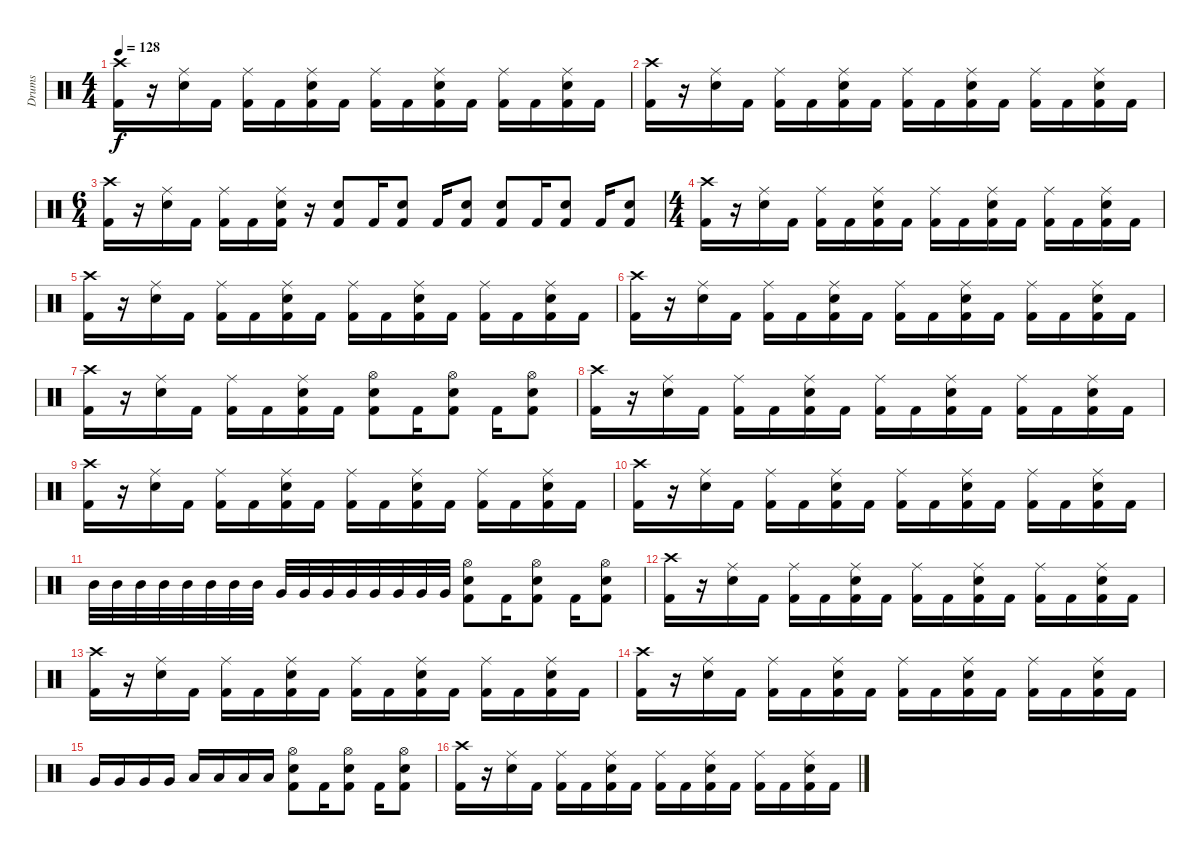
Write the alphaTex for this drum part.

\track ("Drums" "Drums") {instrument percussion}
\staff {score}
\articulation defaults
\ts (4 4)
\tempo 128
\clef neutral
\ks c
("Crash high (hit)" "Kick (hit) 2").16{dy f} r.16 ("Ride (middle)" "Snare (hit) 2").16 "Kick (hit) 2".16 ("Ride (middle)" "Kick (hit) 2").16 "Kick (hit) 2".16 ("Ride (middle)" "Snare (hit) 2" "Kick (hit) 2").16 "Kick (hit) 2".16 ("Ride (middle)" "Kick (hit) 2").16 "Kick (hit) 2".16 ("Ride (middle)" "Snare (hit) 2" "Kick (hit) 2").16 "Kick (hit) 2".16 ("Ride (middle)" "Kick (hit) 2").16 "Kick (hit) 2".16 ("Ride (middle)" "Snare (hit) 2" "Kick (hit) 2").16 "Kick (hit) 2".16 |
("Crash high (hit)" "Kick (hit) 2").16 r.16 ("Ride (middle)" "Snare (hit) 2").16 "Kick (hit) 2".16 ("Ride (middle)" "Kick (hit) 2").16 "Kick (hit) 2".16 ("Ride (middle)" "Snare (hit) 2" "Kick (hit) 2").16 "Kick (hit) 2".16 ("Ride (middle)" "Kick (hit) 2").16 "Kick (hit) 2".16 ("Ride (middle)" "Snare (hit) 2" "Kick (hit) 2").16 "Kick (hit) 2".16 ("Ride (middle)" "Kick (hit) 2").16 "Kick (hit) 2".16 ("Ride (middle)" "Snare (hit) 2" "Kick (hit) 2").16 "Kick (hit) 2".16 |
\ts (6 4)
("Crash high (hit)" "Kick (hit) 2").16 r.16 ("Ride (middle)" "Snare (hit) 2").16 "Kick (hit) 2".16 ("Ride (middle)" "Kick (hit) 2").16 "Kick (hit) 2".16 ("Ride (middle)" "Snare (hit) 2" "Kick (hit) 2").16 r.16 ("Snare (hit) 2" "Kick (hit) 2").8 "Kick (hit) 2".16 ("Snare (hit) 2" "Kick (hit) 2").8 "Kick (hit) 2".16 ("Snare (hit) 2" "Kick (hit) 2").8 ("Snare (hit) 2" "Kick (hit) 2").8 "Kick (hit) 2".16 ("Snare (hit) 2" "Kick (hit) 2").8 "Kick (hit) 2".16 ("Snare (hit) 2" "Kick (hit) 2").8 |
\ts (4 4)
("Crash high (hit)" "Kick (hit) 2").16 r.16 ("Ride (middle)" "Snare (hit) 2").16 "Kick (hit) 2".16 ("Ride (middle)" "Kick (hit) 2").16 "Kick (hit) 2".16 ("Ride (middle)" "Snare (hit) 2" "Kick (hit) 2").16 "Kick (hit) 2".16 ("Ride (middle)" "Kick (hit) 2").16 "Kick (hit) 2".16 ("Ride (middle)" "Snare (hit) 2" "Kick (hit) 2").16 "Kick (hit) 2".16 ("Ride (middle)" "Kick (hit) 2").16 "Kick (hit) 2".16 ("Ride (middle)" "Snare (hit) 2" "Kick (hit) 2").16 "Kick (hit) 2".16 |
("Crash high (hit)" "Kick (hit) 2").16 r.16 ("Ride (middle)" "Snare (hit) 2").16 "Kick (hit) 2".16 ("Ride (middle)" "Kick (hit) 2").16 "Kick (hit) 2".16 ("Ride (middle)" "Snare (hit) 2" "Kick (hit) 2").16 "Kick (hit) 2".16 ("Ride (middle)" "Kick (hit) 2").16 "Kick (hit) 2".16 ("Ride (middle)" "Snare (hit) 2" "Kick (hit) 2").16 "Kick (hit) 2".16 ("Ride (middle)" "Kick (hit) 2").16 "Kick (hit) 2".16 ("Ride (middle)" "Snare (hit) 2" "Kick (hit) 2").16 "Kick (hit) 2".16 |
("Crash high (hit)" "Kick (hit) 2").16 r.16 ("Ride (middle)" "Snare (hit) 2").16 "Kick (hit) 2".16 ("Ride (middle)" "Kick (hit) 2").16 "Kick (hit) 2".16 ("Ride (middle)" "Snare (hit) 2" "Kick (hit) 2").16 "Kick (hit) 2".16 ("Ride (middle)" "Kick (hit) 2").16 "Kick (hit) 2".16 ("Ride (middle)" "Snare (hit) 2" "Kick (hit) 2").16 "Kick (hit) 2".16 ("Ride (middle)" "Kick (hit) 2").16 "Kick (hit) 2".16 ("Ride (middle)" "Snare (hit) 2" "Kick (hit) 2").16 "Kick (hit) 2".16 |
("Crash high (hit)" "Kick (hit) 2").16 r.16 ("Ride (middle)" "Snare (hit) 2").16 "Kick (hit) 2".16 ("Ride (middle)" "Kick (hit) 2").16 "Kick (hit) 2".16 ("Ride (middle)" "Snare (hit) 2" "Kick (hit) 2").16 "Kick (hit) 2".16 ("Hi-Hat (open)" "Snare (hit) 2" "Kick (hit) 2").8 "Kick (hit) 2".16 ("Hi-Hat (open)" "Snare (hit) 2" "Kick (hit) 2").8 "Kick (hit) 2".16 ("Hi-Hat (open)" "Snare (hit) 2" "Kick (hit) 2").8 |
("Crash high (hit)" "Kick (hit) 2").16 r.16 ("Ride (middle)" "Snare (hit) 2").16 "Kick (hit) 2".16 ("Ride (middle)" "Kick (hit) 2").16 "Kick (hit) 2".16 ("Ride (middle)" "Snare (hit) 2" "Kick (hit) 2").16 "Kick (hit) 2".16 ("Ride (middle)" "Kick (hit) 2").16 "Kick (hit) 2".16 ("Ride (middle)" "Snare (hit) 2" "Kick (hit) 2").16 "Kick (hit) 2".16 ("Ride (middle)" "Kick (hit) 2").16 "Kick (hit) 2".16 ("Ride (middle)" "Snare (hit) 2" "Kick (hit) 2").16 "Kick (hit) 2".16 |
("Crash high (hit)" "Kick (hit) 2").16 r.16 ("Ride (middle)" "Snare (hit) 2").16 "Kick (hit) 2".16 ("Ride (middle)" "Kick (hit) 2").16 "Kick (hit) 2".16 ("Ride (middle)" "Snare (hit) 2" "Kick (hit) 2").16 "Kick (hit) 2".16 ("Ride (middle)" "Kick (hit) 2").16 "Kick (hit) 2".16 ("Ride (middle)" "Snare (hit) 2" "Kick (hit) 2").16 "Kick (hit) 2".16 ("Ride (middle)" "Kick (hit) 2").16 "Kick (hit) 2".16 ("Ride (middle)" "Snare (hit) 2" "Kick (hit) 2").16 "Kick (hit) 2".16 |
("Crash high (hit)" "Kick (hit) 2").16 r.16 ("Ride (middle)" "Snare (hit) 2").16 "Kick (hit) 2".16 ("Ride (middle)" "Kick (hit) 2").16 "Kick (hit) 2".16 ("Ride (middle)" "Snare (hit) 2" "Kick (hit) 2").16 "Kick (hit) 2".16 ("Ride (middle)" "Kick (hit) 2").16 "Kick (hit) 2".16 ("Ride (middle)" "Snare (hit) 2" "Kick (hit) 2").16 "Kick (hit) 2".16 ("Ride (middle)" "Kick (hit) 2").16 "Kick (hit) 2".16 ("Ride (middle)" "Snare (hit) 2" "Kick (hit) 2").16 "Kick (hit) 2".16 |
"Mid Tom (hit)".32 "Mid Tom (hit)".32 "Mid Tom (hit)".32 "Mid Tom (hit)".32 "Mid Tom (hit)".32 "Mid Tom (hit)".32 "Mid Tom (hit)".32 "Mid Tom (hit)".32 "Very Low Tom (hit)".32 "Very Low Tom (hit)".32 "Very Low Tom (hit)".32 "Very Low Tom (hit)".32 "Very Low Tom (hit)".32 "Very Low Tom (hit)".32 "Very Low Tom (hit)".32 "Very Low Tom (hit)".32 ("Hi-Hat (open)" "Snare (hit) 2" "Kick (hit) 2").8 "Kick (hit) 2".16 ("Hi-Hat (open)" "Snare (hit) 2" "Kick (hit) 2").8 "Kick (hit) 2".16 ("Hi-Hat (open)" "Snare (hit) 2" "Kick (hit) 2").8 |
("Crash high (hit)" "Kick (hit) 2").16 r.16 ("Ride (middle)" "Snare (hit) 2").16 "Kick (hit) 2".16 ("Ride (middle)" "Kick (hit) 2").16 "Kick (hit) 2".16 ("Ride (middle)" "Snare (hit) 2" "Kick (hit) 2").16 "Kick (hit) 2".16 ("Ride (middle)" "Kick (hit) 2").16 "Kick (hit) 2".16 ("Ride (middle)" "Snare (hit) 2" "Kick (hit) 2").16 "Kick (hit) 2".16 ("Ride (middle)" "Kick (hit) 2").16 "Kick (hit) 2".16 ("Ride (middle)" "Snare (hit) 2" "Kick (hit) 2").16 "Kick (hit) 2".16 |
("Crash high (hit)" "Kick (hit) 2").16 r.16 ("Ride (middle)" "Snare (hit) 2").16 "Kick (hit) 2".16 ("Ride (middle)" "Kick (hit) 2").16 "Kick (hit) 2".16 ("Ride (middle)" "Snare (hit) 2" "Kick (hit) 2").16 "Kick (hit) 2".16 ("Ride (middle)" "Kick (hit) 2").16 "Kick (hit) 2".16 ("Ride (middle)" "Snare (hit) 2" "Kick (hit) 2").16 "Kick (hit) 2".16 ("Ride (middle)" "Kick (hit) 2").16 "Kick (hit) 2".16 ("Ride (middle)" "Snare (hit) 2" "Kick (hit) 2").16 "Kick (hit) 2".16 |
("Crash high (hit)" "Kick (hit) 2").16 r.16 ("Ride (middle)" "Snare (hit) 2").16 "Kick (hit) 2".16 ("Ride (middle)" "Kick (hit) 2").16 "Kick (hit) 2".16 ("Ride (middle)" "Snare (hit) 2" "Kick (hit) 2").16 "Kick (hit) 2".16 ("Ride (middle)" "Kick (hit) 2").16 "Kick (hit) 2".16 ("Ride (middle)" "Snare (hit) 2" "Kick (hit) 2").16 "Kick (hit) 2".16 ("Ride (middle)" "Kick (hit) 2").16 "Kick (hit) 2".16 ("Ride (middle)" "Snare (hit) 2" "Kick (hit) 2").16 "Kick (hit) 2".16 |
"Very Low Tom (hit)".16 "Very Low Tom (hit)".16 "Very Low Tom (hit)".16 "Very Low Tom (hit)".16 "Low Floor Tom (hit)".16 "Low Floor Tom (hit)".16 "Low Floor Tom (hit)".16 "Low Floor Tom (hit)".16 ("Hi-Hat (open)" "Snare (hit) 2" "Kick (hit) 2").8 "Kick (hit) 2".16 ("Hi-Hat (open)" "Snare (hit) 2" "Kick (hit) 2").8 "Kick (hit) 2".16 ("Hi-Hat (open)" "Snare (hit) 2" "Kick (hit) 2").8 |
("Crash high (hit)" "Kick (hit) 2").16 r.16 ("Ride (middle)" "Snare (hit) 2").16 "Kick (hit) 2".16 ("Ride (middle)" "Kick (hit) 2").16 "Kick (hit) 2".16 ("Ride (middle)" "Snare (hit) 2" "Kick (hit) 2").16 "Kick (hit) 2".16 ("Ride (middle)" "Kick (hit) 2").16 "Kick (hit) 2".16 ("Ride (middle)" "Snare (hit) 2" "Kick (hit) 2").16 "Kick (hit) 2".16 ("Ride (middle)" "Kick (hit) 2").16 "Kick (hit) 2".16 ("Ride (middle)" "Snare (hit) 2" "Kick (hit) 2").16 "Kick (hit) 2".16
